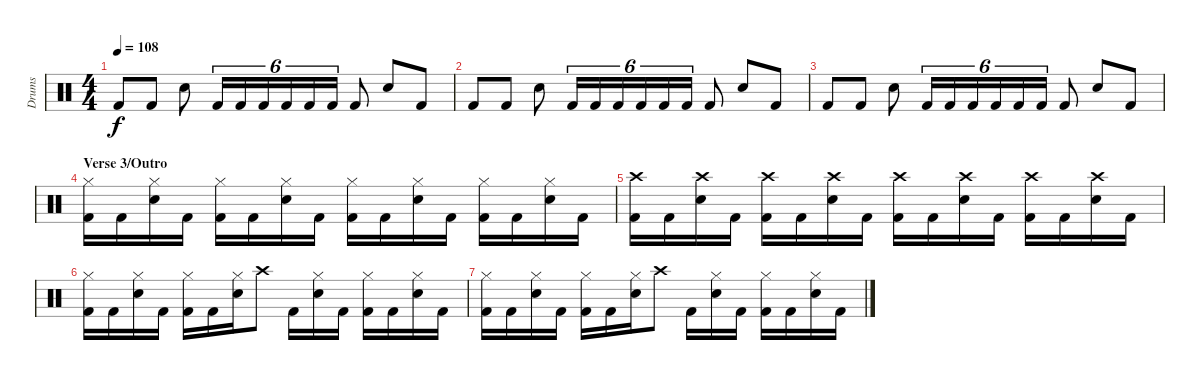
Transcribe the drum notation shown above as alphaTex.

\track ("Drums" "Drums") {instrument percussion}
\staff {score}
\articulation defaults
\ts (4 4)
\tempo 108
\clef neutral
\ks c "Kick (hit) 2".8{dy f} "Kick (hit) 2".8 "Electric Snare (hit)".8 "Kick (hit) 2".16{tu (6 4)} "Kick (hit) 2".16{tu (6 4)} "Kick (hit) 2".16{tu (6 4)} "Kick (hit) 2".16{tu (6 4)} "Kick (hit) 2".16{tu (6 4)} "Kick (hit) 2".16{tu (6 4)} "Kick (hit) 2".8 "Electric Snare (hit)".8 "Kick (hit) 2".8
|
"Kick (hit) 2".8 "Kick (hit) 2".8 "Electric Snare (hit)".8 "Kick (hit) 2".16{tu (6 4)} "Kick (hit) 2".16{tu (6 4)} "Kick (hit) 2".16{tu (6 4)} "Kick (hit) 2".16{tu (6 4)} "Kick (hit) 2".16{tu (6 4)} "Kick (hit) 2".16{tu (6 4)} "Kick (hit) 2".8 "Electric Snare (hit)".8 "Kick (hit) 2".8 |
"Kick (hit) 2".8 "Kick (hit) 2".8 "Electric Snare (hit)".8 "Kick (hit) 2".16{tu (6 4)} "Kick (hit) 2".16{tu (6 4)} "Kick (hit) 2".16{tu (6 4)} "Kick (hit) 2".16{tu (6 4)} "Kick (hit) 2".16{tu (6 4)} "Kick (hit) 2".16{tu (6 4)} "Kick (hit) 2".8 "Electric Snare (hit)".8 "Kick (hit) 2".8 |
\section ("" "Verse 3/Outro")
("Hi-Hat (closed)" "Kick (hit) 2").16 "Kick (hit) 2".16 ("Hi-Hat (closed)" "Electric Snare (hit)").16 "Kick (hit) 2".16 ("Hi-Hat (closed)" "Kick (hit) 2").16 "Kick (hit) 2".16 ("Hi-Hat (closed)" "Electric Snare (hit)").16 "Kick (hit) 2".16 ("Hi-Hat (closed)" "Kick (hit) 2").16 "Kick (hit) 2".16 ("Hi-Hat (closed)" "Electric Snare (hit)").16 "Kick (hit) 2".16 ("Hi-Hat (closed)" "Kick (hit) 2").16 "Kick (hit) 2".16 ("Hi-Hat (closed)" "Electric Snare (hit)").16 "Kick (hit) 2".16 |
("Crash high (hit)" "Kick (hit) 2").16 "Kick (hit) 2".16 ("Crash high (hit)" "Electric Snare (hit)").16 "Kick (hit) 2".16 ("Crash high (hit)" "Kick (hit) 2").16 "Kick (hit) 2".16 ("Crash high (hit)" "Electric Snare (hit)").16 "Kick (hit) 2".16 ("Crash high (hit)" "Kick (hit) 2").16 "Kick (hit) 2".16 ("Crash high (hit)" "Electric Snare (hit)").16 "Kick (hit) 2".16 ("Crash high (hit)" "Kick (hit) 2").16 "Kick (hit) 2".16 ("Crash high (hit)" "Electric Snare (hit)").16 "Kick (hit) 2".16 |
("Hi-Hat (closed)" "Kick (hit) 2").16 "Kick (hit) 2".16 ("Hi-Hat (closed)" "Electric Snare (hit)").16 "Kick (hit) 2".16 ("Hi-Hat (closed)" "Kick (hit) 2").16 "Kick (hit) 2".16 ("Hi-Hat (closed)" "Electric Snare (hit)").16 "Crash high (hit)".8 "Kick (hit) 2".16 ("Hi-Hat (closed)" "Electric Snare (hit)").16 "Kick (hit) 2".16 ("Hi-Hat (closed)" "Kick (hit) 2").16 "Kick (hit) 2".16 ("Hi-Hat (closed)" "Electric Snare (hit)").16 "Kick (hit) 2".16 |
("Hi-Hat (closed)" "Kick (hit) 2").16 "Kick (hit) 2".16 ("Hi-Hat (closed)" "Electric Snare (hit)").16 "Kick (hit) 2".16 ("Hi-Hat (closed)" "Kick (hit) 2").16 "Kick (hit) 2".16 ("Hi-Hat (closed)" "Electric Snare (hit)").16 "Crash high (hit)".8 "Kick (hit) 2".16 ("Hi-Hat (closed)" "Electric Snare (hit)").16 "Kick (hit) 2".16 ("Hi-Hat (closed)" "Kick (hit) 2").16 "Kick (hit) 2".16 ("Hi-Hat (closed)" "Electric Snare (hit)").16 "Kick (hit) 2".16
